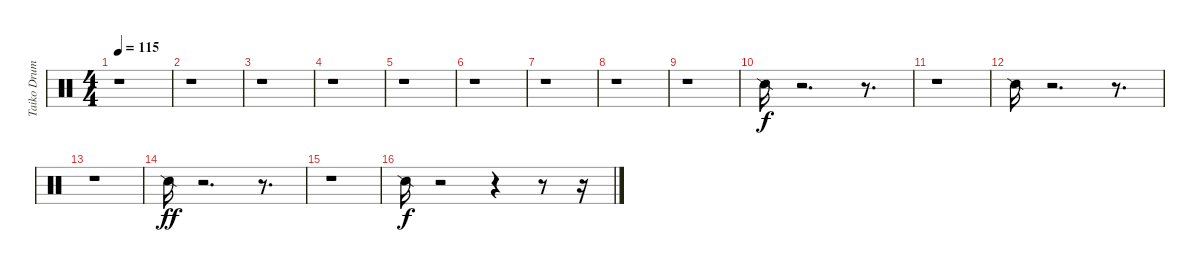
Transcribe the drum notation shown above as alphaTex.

\track ("Taiko Drums" "Taiko Drum") {instrument percussion}
\staff {score}
\articulation defaults
\ts (4 4)
\tempo 115
\clef neutral
\ks c
r.1{dy ff} |
r.1 |
r.1 |
r.1 |
r.1 |
r.1 |
r.1 |
r.1 |
r.1 |
"Snare (side stick) 2".16{dy f} r.2{d} r.8{d} |
r.1 |
"Snare (side stick) 2".16 r.2{d} r.8{d} |
r.1 |
"Snare (side stick) 2".16{dy ff} r.2{d} r.8{d} |
r.1 |
"Snare (side stick) 2".16{dy f} r.2 r.4 r.8 r.16
